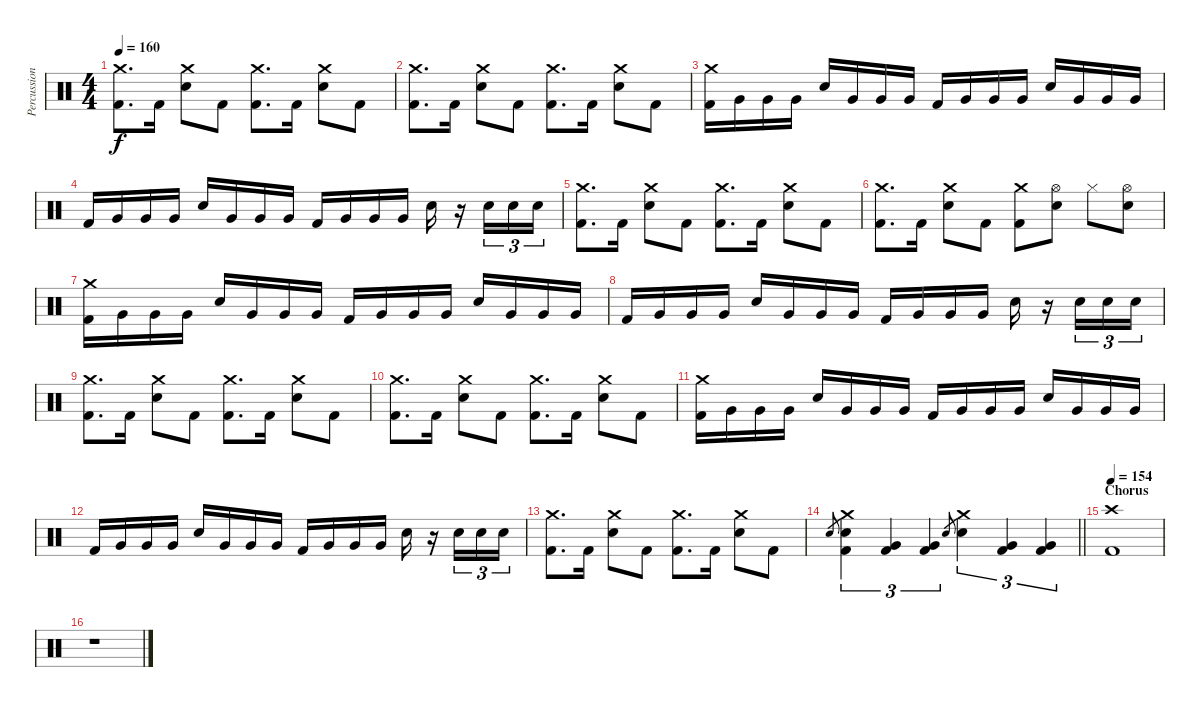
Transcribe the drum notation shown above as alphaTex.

\track ("Percussion" "Percussion") {instrument percussion}
\staff {score}
\articulation defaults
\ts (4 4)
\tempo 160
\clef neutral
\ks c
("Crash medium (hit)" "Kick (hit) 2").8{d dy f} "Kick (hit) 2".16 ("Crash medium (hit)" "Electric Snare (hit)").8 "Kick (hit) 2".8 ("Crash medium (hit)" "Kick (hit) 2").8{d} "Kick (hit) 2".16 ("Crash medium (hit)" "Electric Snare (hit)").8 "Kick (hit) 2".8 |
("Crash medium (hit)" "Kick (hit) 2").8{d} "Kick (hit) 2".16 ("Crash medium (hit)" "Electric Snare (hit)").8 "Kick (hit) 2".8 ("Crash medium (hit)" "Kick (hit) 2").8{d} "Kick (hit) 2".16 ("Crash medium (hit)" "Electric Snare (hit)").8 "Kick (hit) 2".8 |
("Crash medium (hit)" "Kick (hit) 2").16 "Very Low Tom (hit)".16 "Very Low Tom (hit)".16 "Very Low Tom (hit)".16 "Electric Snare (hit)".16 "Very Low Tom (hit)".16 "Very Low Tom (hit)".16 "Very Low Tom (hit)".16 "Kick (hit) 2".16 "Very Low Tom (hit)".16 "Very Low Tom (hit)".16 "Very Low Tom (hit)".16 "Electric Snare (hit)".16 "Very Low Tom (hit)".16 "Very Low Tom (hit)".16 "Very Low Tom (hit)".16 |
"Kick (hit) 2".16 "Very Low Tom (hit)".16 "Very Low Tom (hit)".16 "Very Low Tom (hit)".16 "Electric Snare (hit)".16 "Very Low Tom (hit)".16 "Very Low Tom (hit)".16 "Very Low Tom (hit)".16 "Kick (hit) 2".16 "Very Low Tom (hit)".16 "Very Low Tom (hit)".16 "Very Low Tom (hit)".16 "Electric Snare (hit)".16 r.16 "Electric Snare (hit)".16{tu (3 2)} "Electric Snare (hit)".16{tu (3 2)} "Electric Snare (hit)".16{tu (3 2)} |
("Crash medium (hit)" "Kick (hit) 2").8{d} "Kick (hit) 2".16 ("Crash medium (hit)" "Electric Snare (hit)").8 "Kick (hit) 2".8 ("Crash medium (hit)" "Kick (hit) 2").8{d} "Kick (hit) 2".16 ("Crash medium (hit)" "Electric Snare (hit)").8 "Kick (hit) 2".8 |
("Crash medium (hit)" "Kick (hit) 2").8{d} "Kick (hit) 2".16 ("Crash medium (hit)" "Electric Snare (hit)").8 "Kick (hit) 2".8 ("Crash medium (hit)" "Kick (hit) 2").8 ("Hi-Hat (open)" "Electric Snare (hit)").8 "Hi-Hat (closed)".8 ("Hi-Hat (open)" "Electric Snare (hit)").8 |
("Crash medium (hit)" "Kick (hit) 2").16 "Very Low Tom (hit)".16 "Very Low Tom (hit)".16 "Very Low Tom (hit)".16 "Electric Snare (hit)".16 "Very Low Tom (hit)".16 "Very Low Tom (hit)".16 "Very Low Tom (hit)".16 "Kick (hit) 2".16 "Very Low Tom (hit)".16 "Very Low Tom (hit)".16 "Very Low Tom (hit)".16 "Electric Snare (hit)".16 "Very Low Tom (hit)".16 "Very Low Tom (hit)".16 "Very Low Tom (hit)".16 |
"Kick (hit) 2".16 "Very Low Tom (hit)".16 "Very Low Tom (hit)".16 "Very Low Tom (hit)".16 "Electric Snare (hit)".16 "Very Low Tom (hit)".16 "Very Low Tom (hit)".16 "Very Low Tom (hit)".16 "Kick (hit) 2".16 "Very Low Tom (hit)".16 "Very Low Tom (hit)".16 "Very Low Tom (hit)".16 "Electric Snare (hit)".16 r.16 "Electric Snare (hit)".16{tu (3 2)} "Electric Snare (hit)".16{tu (3 2)} "Electric Snare (hit)".16{tu (3 2)} |
("Crash medium (hit)" "Kick (hit) 2").8{d} "Kick (hit) 2".16 ("Crash medium (hit)" "Electric Snare (hit)").8 "Kick (hit) 2".8 ("Crash medium (hit)" "Kick (hit) 2").8{d} "Kick (hit) 2".16 ("Crash medium (hit)" "Electric Snare (hit)").8 "Kick (hit) 2".8 |
("Crash medium (hit)" "Kick (hit) 2").8{d} "Kick (hit) 2".16 ("Crash medium (hit)" "Electric Snare (hit)").8 "Kick (hit) 2".8 ("Crash medium (hit)" "Kick (hit) 2").8{d} "Kick (hit) 2".16 ("Crash medium (hit)" "Electric Snare (hit)").8 "Kick (hit) 2".8 |
("Crash medium (hit)" "Kick (hit) 2").16 "Very Low Tom (hit)".16 "Very Low Tom (hit)".16 "Very Low Tom (hit)".16 "Electric Snare (hit)".16 "Very Low Tom (hit)".16 "Very Low Tom (hit)".16 "Very Low Tom (hit)".16 "Kick (hit) 2".16 "Very Low Tom (hit)".16 "Very Low Tom (hit)".16 "Very Low Tom (hit)".16 "Electric Snare (hit)".16 "Very Low Tom (hit)".16 "Very Low Tom (hit)".16 "Very Low Tom (hit)".16 |
"Kick (hit) 2".16 "Very Low Tom (hit)".16 "Very Low Tom (hit)".16 "Very Low Tom (hit)".16 "Electric Snare (hit)".16 "Very Low Tom (hit)".16 "Very Low Tom (hit)".16 "Very Low Tom (hit)".16 "Kick (hit) 2".16 "Very Low Tom (hit)".16 "Very Low Tom (hit)".16 "Very Low Tom (hit)".16 "Electric Snare (hit)".16 r.16 "Electric Snare (hit)".16{tu (3 2)} "Electric Snare (hit)".16{tu (3 2)} "Electric Snare (hit)".16{tu (3 2)} |
("Crash medium (hit)" "Kick (hit) 2").8{d} "Kick (hit) 2".16 ("Crash medium (hit)" "Electric Snare (hit)").8 "Kick (hit) 2".8 ("Crash medium (hit)" "Kick (hit) 2").8{d} "Kick (hit) 2".16 ("Crash medium (hit)" "Electric Snare (hit)").8 "Kick (hit) 2".8 |
\barLineRight lightlight "Electric Snare (hit)".8{gr}
("Crash medium (hit)" "Electric Snare (hit)" "Kick (hit) 2").4{tu (3 2)} ("Very Low Tom (hit)" "Kick (hit) 2").4{tu (3 2)} ("Very Low Tom (hit)" "Kick (hit) 2").4{tu (3 2)} "Electric Snare (hit)".8{gr} ("Crash medium (hit)" "Electric Snare (hit)").4{tu (3 2)} ("Very Low Tom (hit)" "Kick (hit) 2").4{tu (3 2)} ("Very Low Tom (hit)" "Kick (hit) 2").4{tu (3 2)} |
\section ("" "Chorus")
\tempo 154
("Crash high (hit)" "Kick (hit) 2").1 |
r.1
